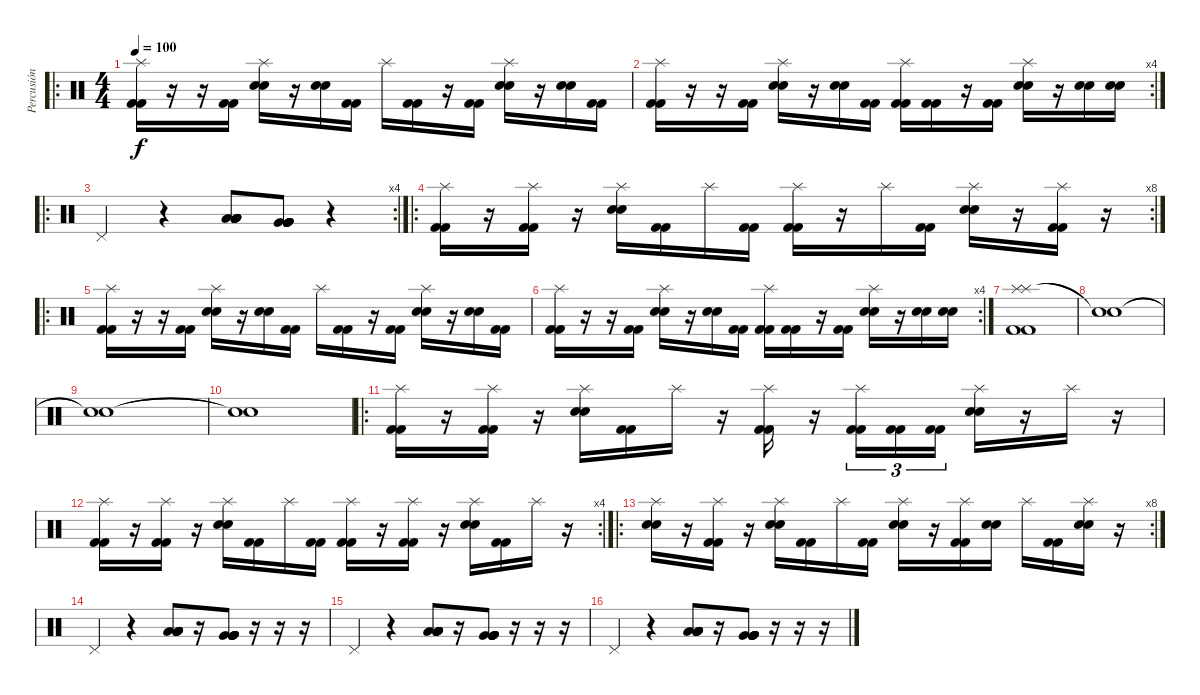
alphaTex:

\track ("Percusión" "Percusión") {instrument percussion}
\staff {score}
\articulation defaults
\ro
\ts (4 4)
\tempo 100
\clef neutral
\ks c
("Splash (hit)" "Kick (hit) 2" "Kick (hit) 2").16{dy f} r.16 r.16 ("Kick (hit) 2" "Kick (hit) 2").16 ("Splash (hit)" "Electric Snare (hit)" "Electric Snare (hit)").16 r.16 ("Electric Snare (hit)" "Electric Snare (hit)").16 ("Kick (hit) 2" "Kick (hit) 2").16 "Splash (hit)".16 ("Kick (hit) 2" "Kick (hit) 2").16 r.16 ("Kick (hit) 2" "Kick (hit) 2").16 ("Splash (hit)" "Electric Snare (hit)" "Electric Snare (hit)").16 r.16 ("Electric Snare (hit)" "Electric Snare (hit)").16 ("Kick (hit) 2" "Kick (hit) 2").16 |
\rc 4
("Splash (hit)" "Kick (hit) 2" "Kick (hit) 2").16 r.16 r.16 ("Kick (hit) 2" "Kick (hit) 2").16 ("Splash (hit)" "Electric Snare (hit)" "Electric Snare (hit)").16 r.16 ("Electric Snare (hit)" "Electric Snare (hit)").16 ("Kick (hit) 2" "Kick (hit) 2").16 ("Splash (hit)" "Kick (hit) 2" "Kick (hit) 2").16 ("Kick (hit) 2" "Kick (hit) 2").16 r.16 ("Kick (hit) 2" "Kick (hit) 2").16 ("Splash (hit)" "Electric Snare (hit)" "Electric Snare (hit)").16 r.16 ("Electric Snare (hit)" "Electric Snare (hit)").16 ("Electric Snare (hit)" "Electric Snare (hit)").16 |
\ro
\rc 4 "Pedal Hi-Hat (hit)".4
r.4 ("Low Tom (hit)" "Low Tom (hit)" "Low Tom (hit)" "Low Tom (hit)" "Low Tom (hit)" "Low Tom (hit)").8 ("Very Low Tom (hit)" "Very Low Tom (hit)" "Very Low Tom (hit)" "Very Low Tom (hit)" "Very Low Tom (hit)" "Very Low Tom (hit)").8 r.4 |
\ro
\rc 8
("Splash (hit)" "Kick (hit) 2" "Kick (hit) 2").16 r.16 ("Splash (hit)" "Kick (hit) 2" "Kick (hit) 2").16 r.16 ("Splash (hit)" "Electric Snare (hit)" "Electric Snare (hit)").16 ("Kick (hit) 2" "Kick (hit) 2").16 "Splash (hit)".16 ("Kick (hit) 2" "Kick (hit) 2").16 ("Splash (hit)" "Kick (hit) 2" "Kick (hit) 2").16 r.16 "Splash (hit)".16 ("Kick (hit) 2" "Kick (hit) 2").16 ("Splash (hit)" "Electric Snare (hit)" "Electric Snare (hit)").16 r.16 ("Splash (hit)" "Kick (hit) 2" "Kick (hit) 2").16 r.16 |
\ro
("Splash (hit)" "Kick (hit) 2" "Kick (hit) 2").16 r.16 r.16 ("Kick (hit) 2" "Kick (hit) 2").16 ("Splash (hit)" "Electric Snare (hit)" "Electric Snare (hit)").16 r.16 ("Electric Snare (hit)" "Electric Snare (hit)").16 ("Kick (hit) 2" "Kick (hit) 2").16 "Splash (hit)".16 ("Kick (hit) 2" "Kick (hit) 2").16 r.16 ("Kick (hit) 2" "Kick (hit) 2").16 ("Splash (hit)" "Electric Snare (hit)" "Electric Snare (hit)").16 r.16 ("Electric Snare (hit)" "Electric Snare (hit)").16 ("Kick (hit) 2" "Kick (hit) 2").16 |
\rc 4
("Splash (hit)" "Kick (hit) 2" "Kick (hit) 2").16 r.16 r.16 ("Kick (hit) 2" "Kick (hit) 2").16 ("Splash (hit)" "Electric Snare (hit)" "Electric Snare (hit)").16 r.16 ("Electric Snare (hit)" "Electric Snare (hit)").16 ("Kick (hit) 2" "Kick (hit) 2").16 ("Splash (hit)" "Kick (hit) 2" "Kick (hit) 2").16 ("Kick (hit) 2" "Kick (hit) 2").16 r.16 ("Kick (hit) 2" "Kick (hit) 2").16 ("Splash (hit)" "Electric Snare (hit)" "Electric Snare (hit)").16 r.16 ("Electric Snare (hit)" "Electric Snare (hit)").16 ("Electric Snare (hit)" "Electric Snare (hit)").16 |
("Splash (hit)" "Splash (hit)" "Kick (hit) 2" "Kick (hit) 2").1 |
("Snare (hit)"{t} "Snare (hit)"{t}).1 |
("Snare (hit)"{t} "Snare (hit)"{t}).1 |
("Snare (hit)"{t} "Snare (hit)"{t}).1 |
\ro
("Splash (hit)" "Kick (hit) 2" "Kick (hit) 2").16 r.16 ("Splash (hit)" "Kick (hit) 2" "Kick (hit) 2").16 r.16 ("Splash (hit)" "Electric Snare (hit)" "Electric Snare (hit)").16 ("Kick (hit) 2" "Kick (hit) 2").16 "Splash (hit)".16 r.16 ("Splash (hit)" "Kick (hit) 2" "Kick (hit) 2").16 r.16 ("Splash (hit)" "Kick (hit) 2" "Kick (hit) 2").16{tu (3 2)} ("Kick (hit) 2" "Kick (hit) 2").16{tu (3 2)} ("Kick (hit) 2" "Kick (hit) 2").16{tu (3 2)} ("Splash (hit)" "Electric Snare (hit)" "Electric Snare (hit)").16 r.16 "Splash (hit)".16 r.16 |
\rc 4
("Splash (hit)" "Kick (hit) 2" "Kick (hit) 2").16 r.16 ("Splash (hit)" "Kick (hit) 2" "Kick (hit) 2").16 r.16 ("Splash (hit)" "Electric Snare (hit)" "Electric Snare (hit)").16 ("Kick (hit) 2" "Kick (hit) 2").16 "Splash (hit)".16 ("Kick (hit) 2" "Kick (hit) 2").16 ("Splash (hit)" "Kick (hit) 2" "Kick (hit) 2").16 r.16 ("Splash (hit)" "Kick (hit) 2" "Kick (hit) 2").16 r.16 ("Splash (hit)" "Electric Snare (hit)" "Electric Snare (hit)").16 ("Kick (hit) 2" "Kick (hit) 2").16 "Splash (hit)".16 r.16 |
\ro
\rc 8
("Splash (hit)" "Electric Snare (hit)" "Electric Snare (hit)").16 r.16 ("Splash (hit)" "Kick (hit) 2" "Kick (hit) 2").16 r.16 ("Splash (hit)" "Electric Snare (hit)" "Electric Snare (hit)").16 ("Kick (hit) 2" "Kick (hit) 2").16 "Splash (hit)".16 ("Kick (hit) 2" "Kick (hit) 2").16 ("Splash (hit)" "Electric Snare (hit)" "Electric Snare (hit)").16 r.16 ("Splash (hit)" "Kick (hit) 2" "Kick (hit) 2").16 ("Electric Snare (hit)" "Electric Snare (hit)").16 "Splash (hit)".16 ("Kick (hit) 2" "Kick (hit) 2").16 ("Splash (hit)" "Electric Snare (hit)" "Electric Snare (hit)").16 r.16 |
"Pedal Hi-Hat (hit)".4 r.4 ("Low Tom (hit)" "Low Tom (hit)" "Low Tom (hit)" "Low Tom (hit)" "Low Tom (hit)" "Low Tom (hit)").8 r.16 ("Very Low Tom (hit)" "Very Low Tom (hit)" "Very Low Tom (hit)" "Very Low Tom (hit)" "Very Low Tom (hit)" "Very Low Tom (hit)").8 r.16 r.16 r.16 |
"Pedal Hi-Hat (hit)".4 r.4 ("Low Tom (hit)" "Low Tom (hit)" "Low Tom (hit)" "Low Tom (hit)" "Low Tom (hit)" "Low Tom (hit)").8 r.16 ("Very Low Tom (hit)" "Very Low Tom (hit)" "Very Low Tom (hit)" "Very Low Tom (hit)" "Very Low Tom (hit)" "Very Low Tom (hit)").8 r.16 r.16 r.16 |
"Pedal Hi-Hat (hit)".4 r.4 ("Low Tom (hit)" "Low Tom (hit)" "Low Tom (hit)" "Low Tom (hit)" "Low Tom (hit)" "Low Tom (hit)").8 r.16 ("Very Low Tom (hit)" "Very Low Tom (hit)" "Very Low Tom (hit)" "Very Low Tom (hit)" "Very Low Tom (hit)" "Very Low Tom (hit)").8 r.16 r.16 r.16
